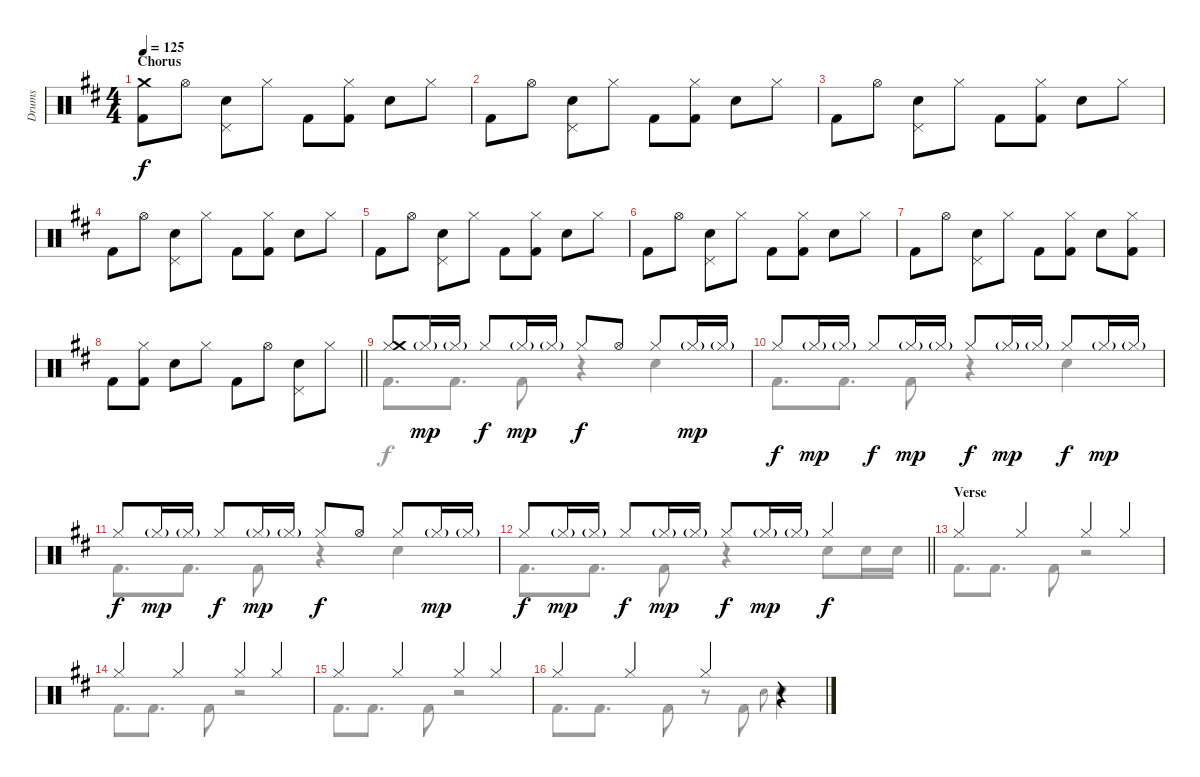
\track ("Drums" "Drums") {instrument percussion}
\staff {score}
\articulation defaults
\voice
\ts (4 4)
\section ("" "Chorus")
\tempo 125
\clef neutral
\ks bminor
("Crash medium (hit)" "Kick (hit) 2").8{dy f} "Hi-Hat (open)".8 ("Pedal Hi-Hat (hit)" "Electric Snare (hit)").8 "Hi-Hat (closed)".8 "Kick (hit) 2".8 ("Hi-Hat (closed)" "Kick (hit) 2").8 "Electric Snare (hit)".8 "Hi-Hat (closed)".8 |
"Kick (hit) 2".8 "Hi-Hat (open)".8 ("Pedal Hi-Hat (hit)" "Electric Snare (hit)").8 "Hi-Hat (closed)".8 "Kick (hit) 2".8 ("Hi-Hat (closed)" "Kick (hit) 2").8 "Electric Snare (hit)".8 "Hi-Hat (closed)".8 |
"Kick (hit) 2".8 "Hi-Hat (open)".8 ("Pedal Hi-Hat (hit)" "Electric Snare (hit)").8 "Hi-Hat (closed)".8 "Kick (hit) 2".8 ("Hi-Hat (closed)" "Kick (hit) 2").8 "Electric Snare (hit)".8 "Hi-Hat (closed)".8 |
"Kick (hit) 2".8 "Hi-Hat (open)".8 ("Pedal Hi-Hat (hit)" "Electric Snare (hit)").8 "Hi-Hat (closed)".8 "Kick (hit) 2".8 ("Hi-Hat (closed)" "Kick (hit) 2").8 "Electric Snare (hit)".8 "Hi-Hat (closed)".8 |
"Kick (hit) 2".8 "Hi-Hat (open)".8 ("Pedal Hi-Hat (hit)" "Electric Snare (hit)").8 "Hi-Hat (closed)".8 "Kick (hit) 2".8 ("Hi-Hat (closed)" "Kick (hit) 2").8 "Electric Snare (hit)".8 "Hi-Hat (closed)".8 |
"Kick (hit) 2".8 "Hi-Hat (open)".8 ("Pedal Hi-Hat (hit)" "Electric Snare (hit)").8 "Hi-Hat (closed)".8 "Kick (hit) 2".8 ("Hi-Hat (closed)" "Kick (hit) 2").8 "Electric Snare (hit)".8 "Hi-Hat (closed)".8 |
"Kick (hit) 2".8 "Hi-Hat (open)".8 ("Pedal Hi-Hat (hit)" "Electric Snare (hit)").8 "Hi-Hat (closed)".8 "Kick (hit) 2".8 ("Hi-Hat (closed)" "Kick (hit) 2").8 "Electric Snare (hit)".8 ("Hi-Hat (closed)" "Kick (hit) 2").8 |
\barLineRight lightlight "Kick (hit) 2".8
("Hi-Hat (closed)" "Kick (hit) 2").8 "Electric Snare (hit)".8 "Hi-Hat (closed)".8 "Kick (hit) 2".8 "Hi-Hat (open)".8 ("Pedal Hi-Hat (hit)" "Electric Snare (hit)").8 "Hi-Hat (closed)".8 |
\section ("" "")
("Hi-Hat (closed)" "Crash medium (hit)").8 "Hi-Hat (closed)"{g}.16{dy mp} "Hi-Hat (closed)"{g}.16 "Hi-Hat (closed)".8{dy f} "Hi-Hat (closed)"{g}.16{dy mp} "Hi-Hat (closed)"{g}.16 "Hi-Hat (closed)".8{dy f} "Hi-Hat (open)".8 "Hi-Hat (closed)".8 "Hi-Hat (closed)"{g}.16{dy mp} "Hi-Hat (closed)"{g}.16 |
"Hi-Hat (closed)".8{dy f} "Hi-Hat (closed)"{g}.16{dy mp} "Hi-Hat (closed)"{g}.16 "Hi-Hat (closed)".8{dy f} "Hi-Hat (closed)"{g}.16{dy mp} "Hi-Hat (closed)"{g}.16 "Hi-Hat (closed)".8{dy f} "Hi-Hat (closed)"{g}.16{dy mp} "Hi-Hat (closed)"{g}.16 "Hi-Hat (closed)".8{dy f} "Hi-Hat (closed)"{g}.16{dy mp} "Hi-Hat (closed)"{g}.16 |
"Hi-Hat (closed)".8{dy f} "Hi-Hat (closed)"{g}.16{dy mp} "Hi-Hat (closed)"{g}.16 "Hi-Hat (closed)".8{dy f} "Hi-Hat (closed)"{g}.16{dy mp} "Hi-Hat (closed)"{g}.16 "Hi-Hat (closed)".8{dy f} "Hi-Hat (open)".8 "Hi-Hat (closed)".8 "Hi-Hat (closed)"{g}.16{dy mp} "Hi-Hat (closed)"{g}.16 |
\barLineRight lightlight "Hi-Hat (closed)".8{dy f} "Hi-Hat (closed)"{g}.16{dy mp} "Hi-Hat (closed)"{g}.16 "Hi-Hat (closed)".8{dy f} "Hi-Hat (closed)"{g}.16{dy mp} "Hi-Hat (closed)"{g}.16 "Hi-Hat (closed)".8{dy f} "Hi-Hat (closed)"{g}.16{dy mp} "Hi-Hat (closed)"{g}.16 "Hi-Hat (closed)".4{dy f}
|
\section ("" "Verse")
"Hi-Hat (closed)".4 "Hi-Hat (closed)".4 "Hi-Hat (closed)".4 "Hi-Hat (closed)".4 |
"Hi-Hat (closed)".4 "Hi-Hat (closed)".4 "Hi-Hat (closed)".4 "Hi-Hat (closed)".4 |
"Hi-Hat (closed)".4 "Hi-Hat (closed)".4 "Hi-Hat (closed)".4 "Hi-Hat (closed)".4 |
"Hi-Hat (closed)".4 "Hi-Hat (closed)".4 "Hi-Hat (closed)".4 r.4
\voice
\clef neutral
\ottava regular
\simile none
\ks bminor
|
|
|
|
|
|
|
\barLineRight lightlight
|
"Kick (hit) 2".8{d} "Kick (hit) 2".8{d} "Kick (hit) 2".8 r.4 "Electric Snare (hit)".4 |
"Kick (hit) 2".8{d} "Kick (hit) 2".8{d} "Kick (hit) 2".8 r.4 "Electric Snare (hit)".4 |
"Kick (hit) 2".8{d} "Kick (hit) 2".8{d} "Kick (hit) 2".8 r.4 "Electric Snare (hit)".4 |
\barLineRight lightlight "Kick (hit) 2".8{d} "Kick (hit) 2".8{d} "Kick (hit) 2".8
r.4 "Electric Snare (hit)".8 "Electric Snare (hit)".16 "Electric Snare (hit)".16 |
"Kick (hit) 2".8{d} "Kick (hit) 2".8{d} "Kick (hit) 2".8 r.2 |
"Kick (hit) 2".8{d} "Kick (hit) 2".8{d} "Kick (hit) 2".8 r.2 |
"Kick (hit) 2".8{d} "Kick (hit) 2".8{d} "Kick (hit) 2".8 r.2 |
"Kick (hit) 2".8{d} "Kick (hit) 2".8{d} "Kick (hit) 2".8 r.8 "Kick (hit) 2".8 "Electric Snare (hit)".8{gr onbeat} "Electric Snare (hit)".4
